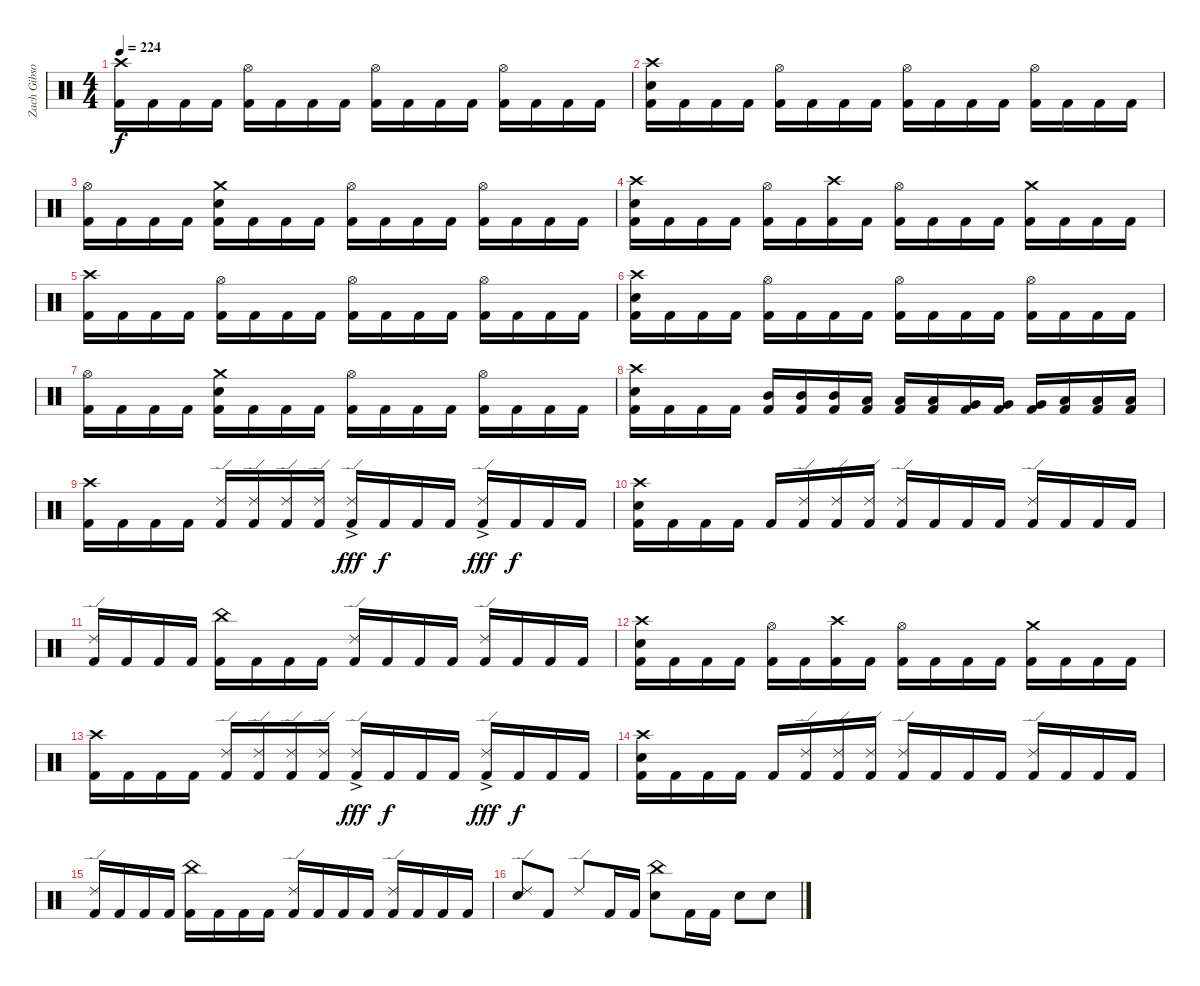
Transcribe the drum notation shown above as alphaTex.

\track ("Zach Gibson (Drums)" "Zach Gibso") {instrument percussion}
\staff {score}
\articulation defaults
\ts (4 4)
\tempo 224
\clef neutral
\ks c
("Crash high (hit)" "Kick (hit) 2").16{dy f} "Kick (hit) 2".16 "Kick (hit) 2".16 "Kick (hit) 2".16 ("Hi-Hat (open)" "Kick (hit) 2").16 "Kick (hit) 2".16 "Kick (hit) 2".16 "Kick (hit) 2".16 ("Hi-Hat (open)" "Kick (hit) 2").16 "Kick (hit) 2".16 "Kick (hit) 2".16 "Kick (hit) 2".16 ("Hi-Hat (open)" "Kick (hit) 2").16 "Kick (hit) 2".16 "Kick (hit) 2".16 "Kick (hit) 2".16 |
("Snare (hit) 2" "Crash high (hit)" "Kick (hit) 2").16 "Kick (hit) 2".16 "Kick (hit) 2".16 "Kick (hit) 2".16 ("Hi-Hat (open)" "Kick (hit) 2").16 "Kick (hit) 2".16 "Kick (hit) 2".16 "Kick (hit) 2".16 ("Hi-Hat (open)" "Kick (hit) 2").16 "Kick (hit) 2".16 "Kick (hit) 2".16 "Kick (hit) 2".16 ("Hi-Hat (open)" "Kick (hit) 2").16 "Kick (hit) 2".16 "Kick (hit) 2".16 "Kick (hit) 2".16 |
("Hi-Hat (open)" "Kick (hit) 2").16 "Kick (hit) 2".16 "Kick (hit) 2".16 "Kick (hit) 2".16 ("Crash medium (hit)" "Snare (hit) 2" "Kick (hit) 2").16 "Kick (hit) 2".16 "Kick (hit) 2".16 "Kick (hit) 2".16 ("Hi-Hat (open)" "Kick (hit) 2").16 "Kick (hit) 2".16 "Kick (hit) 2".16 "Kick (hit) 2".16 ("Hi-Hat (open)" "Kick (hit) 2").16 "Kick (hit) 2".16 "Kick (hit) 2".16 "Kick (hit) 2".16 |
("Snare (hit) 2" "Crash high (hit)" "Kick (hit) 2").16 "Kick (hit) 2".16 "Kick (hit) 2".16 "Kick (hit) 2".16 ("Hi-Hat (open)" "Kick (hit) 2").16 "Kick (hit) 2".16 ("Crash high (hit)" "Kick (hit) 2").16 "Kick (hit) 2".16 ("Hi-Hat (open)" "Kick (hit) 2").16 "Kick (hit) 2".16 "Kick (hit) 2".16 "Kick (hit) 2".16 ("Crash medium (hit)" "Kick (hit) 2").16 "Kick (hit) 2".16 "Kick (hit) 2".16 "Kick (hit) 2".16 |
("Crash high (hit)" "Kick (hit) 2").16 "Kick (hit) 2".16 "Kick (hit) 2".16 "Kick (hit) 2".16 ("Hi-Hat (open)" "Kick (hit) 2").16 "Kick (hit) 2".16 "Kick (hit) 2".16 "Kick (hit) 2".16 ("Hi-Hat (open)" "Kick (hit) 2").16 "Kick (hit) 2".16 "Kick (hit) 2".16 "Kick (hit) 2".16 ("Hi-Hat (open)" "Kick (hit) 2").16 "Kick (hit) 2".16 "Kick (hit) 2".16 "Kick (hit) 2".16 |
("Snare (hit) 2" "Crash high (hit)" "Kick (hit) 2").16 "Kick (hit) 2".16 "Kick (hit) 2".16 "Kick (hit) 2".16 ("Hi-Hat (open)" "Kick (hit) 2").16 "Kick (hit) 2".16 "Kick (hit) 2".16 "Kick (hit) 2".16 ("Hi-Hat (open)" "Kick (hit) 2").16 "Kick (hit) 2".16 "Kick (hit) 2".16 "Kick (hit) 2".16 ("Hi-Hat (open)" "Kick (hit) 2").16 "Kick (hit) 2".16 "Kick (hit) 2".16 "Kick (hit) 2".16 |
("Hi-Hat (open)" "Kick (hit) 2").16 "Kick (hit) 2".16 "Kick (hit) 2".16 "Kick (hit) 2".16 ("Crash medium (hit)" "Snare (hit) 2" "Kick (hit) 2").16 "Kick (hit) 2".16 "Kick (hit) 2".16 "Kick (hit) 2".16 ("Hi-Hat (open)" "Kick (hit) 2").16 "Kick (hit) 2".16 "Kick (hit) 2".16 "Kick (hit) 2".16 ("Hi-Hat (open)" "Kick (hit) 2").16 "Kick (hit) 2".16 "Kick (hit) 2".16 "Kick (hit) 2".16 |
("Crash high (hit)" "Snare (hit) 2" "Kick (hit) 2").16 "Kick (hit) 2".16 "Kick (hit) 2".16 "Kick (hit) 2".16 ("Mid Tom (hit)" "Kick (hit) 2").16 ("Mid Tom (hit)" "Kick (hit) 2").16 ("Mid Tom (hit)" "Kick (hit) 2").16 ("Low Tom (hit)" "Kick (hit) 2").16 ("Low Tom (hit)" "Kick (hit) 2").16 ("Low Tom (hit)" "Kick (hit) 2").16 ("Very Low Tom (hit)" "Kick (hit) 2").16 ("Very Low Tom (hit)" "Kick (hit) 2").16 ("Very Low Tom (hit)" "Kick (hit) 2").16 ("Low Floor Tom (hit)" "Kick (hit) 2").16 ("Low Floor Tom (hit)" "Kick (hit) 2").16 ("Low Floor Tom (hit)" "Kick (hit) 2").16 |
("Crash high (hit)" "Kick (hit) 2").16 "Kick (hit) 2".16 "Kick (hit) 2".16 "Kick (hit) 2".16 ("Ride (edge) 2" "Kick (hit) 2").16 ("Ride (edge) 2" "Kick (hit) 2").16 ("Ride (edge) 2" "Kick (hit) 2").16 ("Ride (edge) 2" "Kick (hit) 2").16 ("Ride (edge) 2"{ac} "Kick (hit) 2").16{dy fff} "Kick (hit) 2".16{dy f} "Kick (hit) 2".16 "Kick (hit) 2".16 ("Ride (edge) 2"{ac} "Kick (hit) 2").16{dy fff} "Kick (hit) 2".16{dy f} "Kick (hit) 2".16 "Kick (hit) 2".16 |
("Snare (hit) 2" "Crash high (hit)" "Kick (hit) 2").16 "Kick (hit) 2".16 "Kick (hit) 2".16 "Kick (hit) 2".16 "Kick (hit) 2".16 ("Ride (edge) 2" "Kick (hit) 2").16 ("Ride (edge) 2" "Kick (hit) 2").16 ("Ride (edge) 2" "Kick (hit) 2").16 ("Ride (edge) 2" "Kick (hit) 2").16 "Kick (hit) 2".16 "Kick (hit) 2".16 "Kick (hit) 2".16 ("Ride (edge) 2" "Kick (hit) 2").16 "Kick (hit) 2".16 "Kick (hit) 2".16 "Kick (hit) 2".16 |
("Ride (edge) 2" "Kick (hit) 2").16 "Kick (hit) 2".16 "Kick (hit) 2".16 "Kick (hit) 2".16 ("China (hit)" "Kick (hit) 2").16 "Kick (hit) 2".16 "Kick (hit) 2".16 "Kick (hit) 2".16 ("Ride (edge) 2" "Kick (hit) 2").16 "Kick (hit) 2".16 "Kick (hit) 2".16 "Kick (hit) 2".16 ("Ride (edge) 2" "Kick (hit) 2").16 "Kick (hit) 2".16 "Kick (hit) 2".16 "Kick (hit) 2".16 |
("Snare (hit) 2" "Crash high (hit)" "Kick (hit) 2").16 "Kick (hit) 2".16 "Kick (hit) 2".16 "Kick (hit) 2".16 ("Hi-Hat (open)" "Kick (hit) 2").16 "Kick (hit) 2".16 ("Crash high (hit)" "Kick (hit) 2").16 "Kick (hit) 2".16 ("Hi-Hat (open)" "Kick (hit) 2").16 "Kick (hit) 2".16 "Kick (hit) 2".16 "Kick (hit) 2".16 ("Crash medium (hit)" "Kick (hit) 2").16 "Kick (hit) 2".16 "Kick (hit) 2".16 "Kick (hit) 2".16 |
("Crash high (hit)" "Kick (hit) 2").16 "Kick (hit) 2".16 "Kick (hit) 2".16 "Kick (hit) 2".16 ("Ride (edge) 2" "Kick (hit) 2").16 ("Ride (edge) 2" "Kick (hit) 2").16 ("Ride (edge) 2" "Kick (hit) 2").16 ("Ride (edge) 2" "Kick (hit) 2").16 ("Ride (edge) 2"{ac} "Kick (hit) 2").16{dy fff} "Kick (hit) 2".16{dy f} "Kick (hit) 2".16 "Kick (hit) 2".16 ("Ride (edge) 2"{ac} "Kick (hit) 2").16{dy fff} "Kick (hit) 2".16{dy f} "Kick (hit) 2".16 "Kick (hit) 2".16 |
("Snare (hit) 2" "Crash high (hit)" "Kick (hit) 2").16 "Kick (hit) 2".16 "Kick (hit) 2".16 "Kick (hit) 2".16 "Kick (hit) 2".16 ("Ride (edge) 2" "Kick (hit) 2").16 ("Ride (edge) 2" "Kick (hit) 2").16 ("Ride (edge) 2" "Kick (hit) 2").16 ("Ride (edge) 2" "Kick (hit) 2").16 "Kick (hit) 2".16 "Kick (hit) 2".16 "Kick (hit) 2".16 ("Ride (edge) 2" "Kick (hit) 2").16 "Kick (hit) 2".16 "Kick (hit) 2".16 "Kick (hit) 2".16 |
("Ride (edge) 2" "Kick (hit) 2").16 "Kick (hit) 2".16 "Kick (hit) 2".16 "Kick (hit) 2".16 ("China (hit)" "Kick (hit) 2").16 "Kick (hit) 2".16 "Kick (hit) 2".16 "Kick (hit) 2".16 ("Ride (edge) 2" "Kick (hit) 2").16 "Kick (hit) 2".16 "Kick (hit) 2".16 "Kick (hit) 2".16 ("Ride (edge) 2" "Kick (hit) 2").16 "Kick (hit) 2".16 "Kick (hit) 2".16 "Kick (hit) 2".16 |
("Ride (edge) 2" "Snare (hit) 2").8 "Kick (hit) 2".8 "Ride (edge) 2".8 "Kick (hit) 2".16 "Kick (hit) 2".16 ("China (hit)" "Snare (hit) 2").8 "Kick (hit) 2".16 "Kick (hit) 2".16 "Snare (hit) 2".8 "Snare (hit) 2".8
